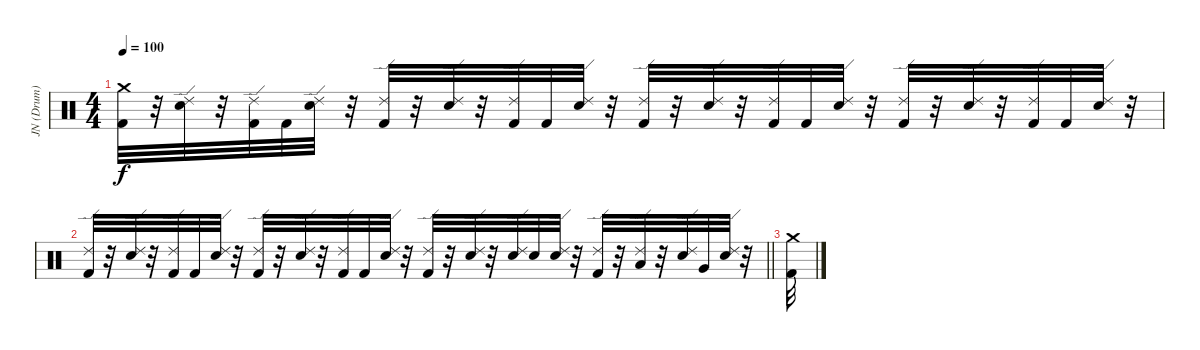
\track ("JN (Drum)" "JN (Drum)") {instrument percussion}
\staff {score}
\articulation defaults
\ts (4 4)
\tempo 100
\clef neutral
\ks c
("Crash medium (hit)" "Kick (hit) 2").32{dy f} r.32 ("Ride (edge) 2" "Electric Snare (hit)").32 r.32 ("Ride (edge) 2" "Kick (hit) 2").32 "Kick (hit) 2".32 ("Ride (edge) 2" "Electric Snare (hit)").32 r.32 ("Ride (edge) 2" "Kick (hit) 2").32 r.32 ("Ride (edge) 2" "Electric Snare (hit)").32 r.32 ("Ride (edge) 2" "Kick (hit) 2").32 "Kick (hit) 2".32 ("Ride (edge) 2" "Electric Snare (hit)").32 r.32 ("Ride (edge) 2" "Kick (hit) 2").32 r.32 ("Ride (edge) 2" "Electric Snare (hit)").32 r.32 ("Ride (edge) 2" "Kick (hit) 2").32 "Kick (hit) 2".32 ("Ride (edge) 2" "Electric Snare (hit)").32 r.32 ("Ride (edge) 2" "Kick (hit) 2").32 r.32 ("Ride (edge) 2" "Electric Snare (hit)").32 r.32 ("Ride (edge) 2" "Kick (hit) 2").32 "Kick (hit) 2".32 ("Ride (edge) 2" "Electric Snare (hit)").32 r.32 |
\barLineRight lightlight
("Ride (edge) 2" "Kick (hit) 2").32 r.32 ("Ride (edge) 2" "Electric Snare (hit)").32 r.32 ("Ride (edge) 2" "Kick (hit) 2").32 "Kick (hit) 2".32 ("Ride (edge) 2" "Electric Snare (hit)").32 r.32 ("Ride (edge) 2" "Kick (hit) 2").32 r.32 ("Ride (edge) 2" "Electric Snare (hit)").32 r.32 ("Ride (edge) 2" "Kick (hit) 2").32 "Kick (hit) 2".32 ("Ride (edge) 2" "Electric Snare (hit)").32 r.32 ("Ride (edge) 2" "Kick (hit) 2").32 r.32 ("Ride (edge) 2" "Electric Snare (hit)").32 r.32 ("Ride (edge) 2" "Electric Snare (hit)").32 "Electric Snare (hit)".32 ("Ride (edge) 2" "Electric Snare (hit)").32 r.32 ("Ride (edge) 2" "Kick (hit) 2").32 r.32 ("Ride (edge) 2" "Low Tom (hit)").32 r.32 ("Ride (edge) 2" "Electric Snare (hit)").32 "Very Low Tom (hit)".32 ("Ride (edge) 2" "Electric Snare (hit)").32 r.32 |
("Crash medium (hit)" "Kick (hit) 2").32
